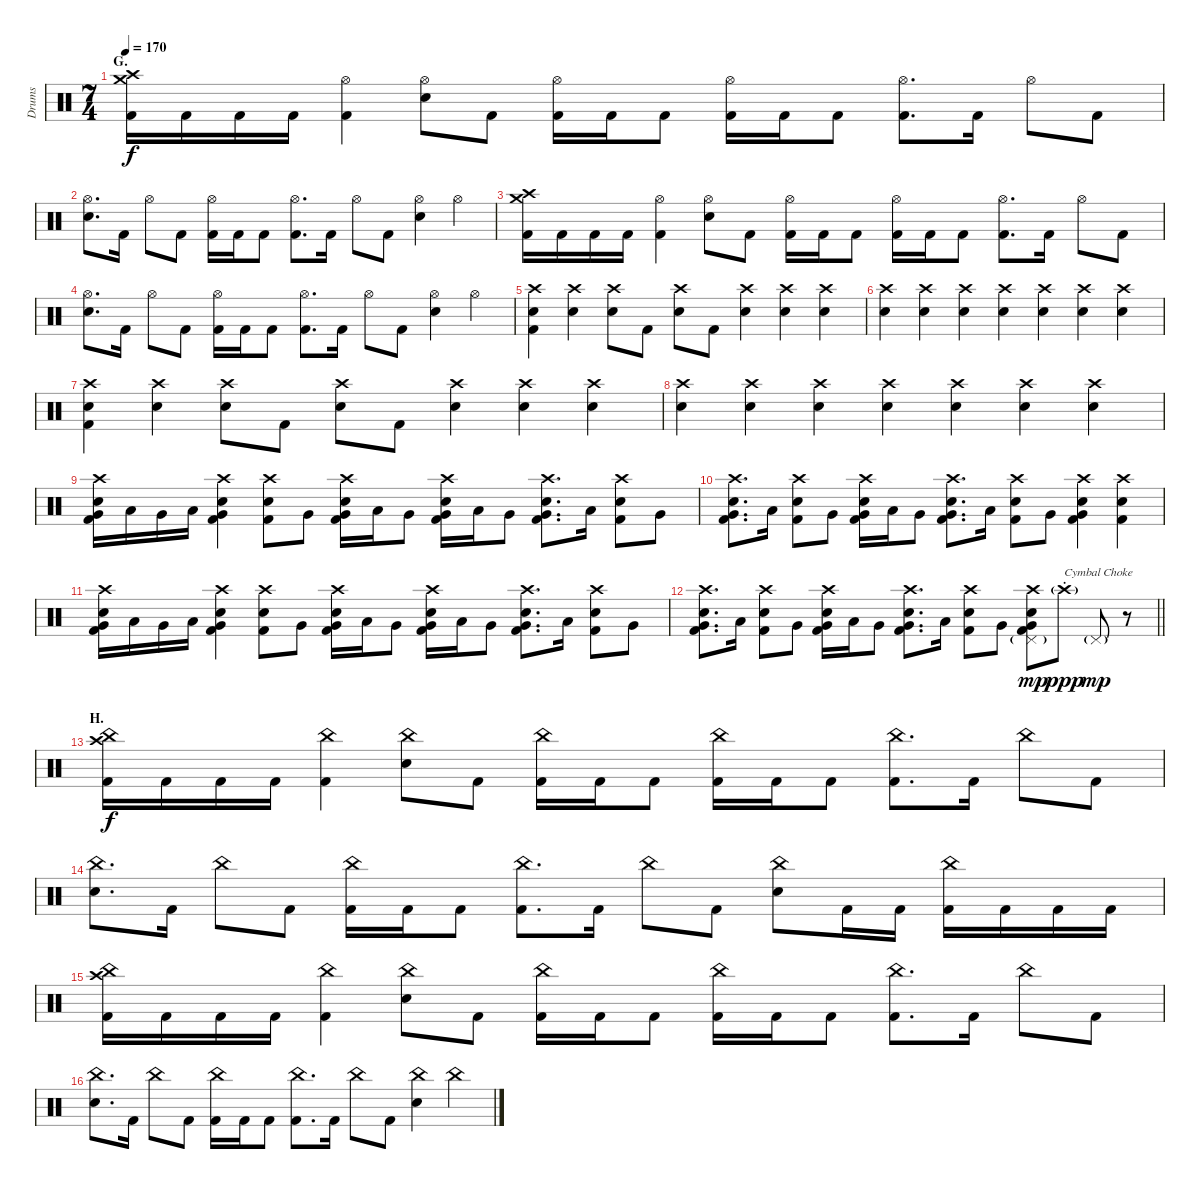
\track ("Drums" "Drums") {instrument percussion}
\staff {score}
\articulation defaults
\ts (7 4)
\section ("" "G.")
\tempo 170
\clef neutral
\ks c
("Crash medium (hit)" "Crash high (hit)" "Kick (hit) 2").16{dy f} "Kick (hit) 2".16 "Kick (hit) 2".16 "Kick (hit) 2".16 ("Hi-Hat (open)" "Kick (hit) 2").4 ("Hi-Hat (open)" "Electric Snare (hit)").8 "Kick (hit) 2".8 ("Hi-Hat (open)" "Kick (hit) 2").16 "Kick (hit) 2".16 "Kick (hit) 2".8 ("Hi-Hat (open)" "Kick (hit) 2").16 "Kick (hit) 2".16 "Kick (hit) 2".8 ("Hi-Hat (open)" "Kick (hit) 2").8{d} "Kick (hit) 2".16 "Hi-Hat (open)".8 "Kick (hit) 2".8 |
("Hi-Hat (open)" "Electric Snare (hit)").8{d} "Kick (hit) 2".16 "Hi-Hat (open)".8 "Kick (hit) 2".8 ("Hi-Hat (open)" "Kick (hit) 2").16 "Kick (hit) 2".16 "Kick (hit) 2".8 ("Hi-Hat (open)" "Kick (hit) 2").8{d} "Kick (hit) 2".16 "Hi-Hat (open)".8 "Kick (hit) 2".8 ("Hi-Hat (open)" "Electric Snare (hit)").4 "Hi-Hat (open)".4 |
("Crash medium (hit)" "Crash high (hit)" "Kick (hit) 2").16 "Kick (hit) 2".16 "Kick (hit) 2".16 "Kick (hit) 2".16 ("Hi-Hat (open)" "Kick (hit) 2").4 ("Hi-Hat (open)" "Electric Snare (hit)").8 "Kick (hit) 2".8 ("Hi-Hat (open)" "Kick (hit) 2").16 "Kick (hit) 2".16 "Kick (hit) 2".8 ("Hi-Hat (open)" "Kick (hit) 2").16 "Kick (hit) 2".16 "Kick (hit) 2".8 ("Hi-Hat (open)" "Kick (hit) 2").8{d} "Kick (hit) 2".16 "Hi-Hat (open)".8 "Kick (hit) 2".8 |
("Hi-Hat (open)" "Electric Snare (hit)").8{d} "Kick (hit) 2".16 "Hi-Hat (open)".8 "Kick (hit) 2".8 ("Hi-Hat (open)" "Kick (hit) 2").16 "Kick (hit) 2".16 "Kick (hit) 2".8 ("Hi-Hat (open)" "Kick (hit) 2").8{d} "Kick (hit) 2".16 "Hi-Hat (open)".8 "Kick (hit) 2".8 ("Hi-Hat (open)" "Electric Snare (hit)").4 "Hi-Hat (open)".4 |
("Crash high (hit)" "Electric Snare (hit)" "Kick (hit) 2").4 ("Crash high (hit)" "Electric Snare (hit)").4 ("Crash high (hit)" "Electric Snare (hit)").8 "Kick (hit) 2".8 ("Crash high (hit)" "Electric Snare (hit)").8 "Kick (hit) 2".8 ("Crash high (hit)" "Electric Snare (hit)").4 ("Crash high (hit)" "Electric Snare (hit)").4 ("Crash high (hit)" "Electric Snare (hit)").4 |
("Crash high (hit)" "Electric Snare (hit)").4 ("Crash high (hit)" "Electric Snare (hit)").4 ("Crash high (hit)" "Electric Snare (hit)").4 ("Crash high (hit)" "Electric Snare (hit)").4 ("Crash high (hit)" "Electric Snare (hit)").4 ("Crash high (hit)" "Electric Snare (hit)").4 ("Crash high (hit)" "Electric Snare (hit)").4 |
("Crash high (hit)" "Electric Snare (hit)" "Kick (hit) 2").4 ("Crash high (hit)" "Electric Snare (hit)").4 ("Crash high (hit)" "Electric Snare (hit)").8 "Kick (hit) 2".8 ("Crash high (hit)" "Electric Snare (hit)").8 "Kick (hit) 2".8 ("Crash high (hit)" "Electric Snare (hit)").4 ("Crash high (hit)" "Electric Snare (hit)").4 ("Crash high (hit)" "Electric Snare (hit)").4 |
("Crash high (hit)" "Electric Snare (hit)").4 ("Crash high (hit)" "Electric Snare (hit)").4 ("Crash high (hit)" "Electric Snare (hit)").4 ("Crash high (hit)" "Electric Snare (hit)").4 ("Crash high (hit)" "Electric Snare (hit)").4 ("Crash high (hit)" "Electric Snare (hit)").4 ("Crash high (hit)" "Electric Snare (hit)").4 |
("Crash high (hit)" "Electric Snare (hit)" "Very Low Tom (hit)" "Kick (hit) 2").16 "Low Floor Tom (hit)".16 "Very Low Tom (hit)".16 "Low Floor Tom (hit)".16 ("Crash high (hit)" "Electric Snare (hit)" "Very Low Tom (hit)" "Kick (hit) 2").4 ("Crash high (hit)" "Electric Snare (hit)" "Kick (hit) 2").8 "Very Low Tom (hit)".8 ("Crash high (hit)" "Electric Snare (hit)" "Very Low Tom (hit)" "Kick (hit) 2").16 "Low Floor Tom (hit)".16 "Very Low Tom (hit)".8 ("Crash high (hit)" "Electric Snare (hit)" "Very Low Tom (hit)" "Kick (hit) 2").16 "Low Floor Tom (hit)".16 "Very Low Tom (hit)".8 ("Crash high (hit)" "Electric Snare (hit)" "Very Low Tom (hit)" "Kick (hit) 2").8{d} "Low Floor Tom (hit)".16 ("Crash high (hit)" "Electric Snare (hit)" "Kick (hit) 2").8 "Very Low Tom (hit)".8 |
("Crash high (hit)" "Electric Snare (hit)" "Very Low Tom (hit)" "Kick (hit) 2").8{d} "Low Floor Tom (hit)".16 ("Crash high (hit)" "Electric Snare (hit)" "Kick (hit) 2").8 "Very Low Tom (hit)".8 ("Crash high (hit)" "Electric Snare (hit)" "Very Low Tom (hit)" "Kick (hit) 2").16 "Low Floor Tom (hit)".16 "Very Low Tom (hit)".8 ("Crash high (hit)" "Electric Snare (hit)" "Very Low Tom (hit)" "Kick (hit) 2").8{d} "Low Floor Tom (hit)".16 ("Crash high (hit)" "Electric Snare (hit)" "Kick (hit) 2").8 "Very Low Tom (hit)".8 ("Crash high (hit)" "Electric Snare (hit)" "Very Low Tom (hit)" "Kick (hit) 2").4 ("Crash high (hit)" "Electric Snare (hit)" "Kick (hit) 2").4 |
("Crash high (hit)" "Electric Snare (hit)" "Very Low Tom (hit)" "Kick (hit) 2").16 "Low Floor Tom (hit)".16 "Very Low Tom (hit)".16 "Low Floor Tom (hit)".16 ("Crash high (hit)" "Electric Snare (hit)" "Very Low Tom (hit)" "Kick (hit) 2").4 ("Crash high (hit)" "Electric Snare (hit)" "Kick (hit) 2").8 "Very Low Tom (hit)".8 ("Crash high (hit)" "Electric Snare (hit)" "Very Low Tom (hit)" "Kick (hit) 2").16 "Low Floor Tom (hit)".16 "Very Low Tom (hit)".8 ("Crash high (hit)" "Electric Snare (hit)" "Very Low Tom (hit)" "Kick (hit) 2").16 "Low Floor Tom (hit)".16 "Very Low Tom (hit)".8 ("Crash high (hit)" "Electric Snare (hit)" "Very Low Tom (hit)" "Kick (hit) 2").8{d} "Low Floor Tom (hit)".16 ("Crash high (hit)" "Electric Snare (hit)" "Kick (hit) 2").8 "Very Low Tom (hit)".8 |
\barLineRight lightlight
("Crash high (hit)" "Electric Snare (hit)" "Very Low Tom (hit)" "Kick (hit) 2").8{d} "Low Floor Tom (hit)".16 ("Crash high (hit)" "Electric Snare (hit)" "Kick (hit) 2").8 "Very Low Tom (hit)".8 ("Crash high (hit)" "Electric Snare (hit)" "Very Low Tom (hit)" "Kick (hit) 2").16 "Low Floor Tom (hit)".16 "Very Low Tom (hit)".8 ("Crash high (hit)" "Electric Snare (hit)" "Very Low Tom (hit)" "Kick (hit) 2").8{d} "Low Floor Tom (hit)".16 ("Crash high (hit)" "Electric Snare (hit)" "Kick (hit) 2").8 "Very Low Tom (hit)".8 ("Crash high (hit)" "Pedal Hi-Hat (hit)"{g} "Electric Snare (hit)" "Very Low Tom (hit)" "Kick (hit) 2").8{dy mp} "Crash high (hit)"{g st}.8{txt "Cymbal Choke" dy ppp} "Pedal Hi-Hat (hit)"{g}.8{dy mp} r.8 |
\section ("" "H.")
("China (hit)" "Crash high (hit)" "Kick (hit) 2").16{dy f} "Kick (hit) 2".16 "Kick (hit) 2".16 "Kick (hit) 2".16 ("China (hit)" "Kick (hit) 2").4 ("China (hit)" "Electric Snare (hit)").8 "Kick (hit) 2".8 ("China (hit)" "Kick (hit) 2").16 "Kick (hit) 2".16 "Kick (hit) 2".8 ("China (hit)" "Kick (hit) 2").16 "Kick (hit) 2".16 "Kick (hit) 2".8 ("China (hit)" "Kick (hit) 2").8{d} "Kick (hit) 2".16 "China (hit)".8 "Kick (hit) 2".8 |
("China (hit)" "Electric Snare (hit)").8{d} "Kick (hit) 2".16 "China (hit)".8 "Kick (hit) 2".8 ("China (hit)" "Kick (hit) 2").16 "Kick (hit) 2".16 "Kick (hit) 2".8 ("China (hit)" "Kick (hit) 2").8{d} "Kick (hit) 2".16 "China (hit)".8 "Kick (hit) 2".8 ("China (hit)" "Electric Snare (hit)").8 "Kick (hit) 2".16 "Kick (hit) 2".16 ("China (hit)" "Kick (hit) 2").16 "Kick (hit) 2".16 "Kick (hit) 2".16 "Kick (hit) 2".16 |
("China (hit)" "Crash high (hit)" "Kick (hit) 2").16 "Kick (hit) 2".16 "Kick (hit) 2".16 "Kick (hit) 2".16 ("China (hit)" "Kick (hit) 2").4 ("China (hit)" "Electric Snare (hit)").8 "Kick (hit) 2".8 ("China (hit)" "Kick (hit) 2").16 "Kick (hit) 2".16 "Kick (hit) 2".8 ("China (hit)" "Kick (hit) 2").16 "Kick (hit) 2".16 "Kick (hit) 2".8 ("China (hit)" "Kick (hit) 2").8{d} "Kick (hit) 2".16 "China (hit)".8 "Kick (hit) 2".8 |
("China (hit)" "Electric Snare (hit)").8{d} "Kick (hit) 2".16 "China (hit)".8 "Kick (hit) 2".8 ("China (hit)" "Kick (hit) 2").16 "Kick (hit) 2".16 "Kick (hit) 2".8 ("China (hit)" "Kick (hit) 2").8{d} "Kick (hit) 2".16 "China (hit)".8 "Kick (hit) 2".8 ("China (hit)" "Electric Snare (hit)").4 "China (hit)".4
